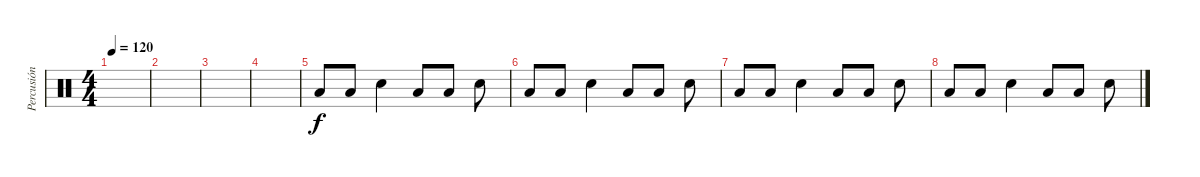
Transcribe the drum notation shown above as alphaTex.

\track ("Percusión" "Percusión") {instrument percussion}
\staff {score}
\articulation defaults
\ts (4 4)
\tempo 120
\clef neutral
\ks c
|
|
|
|
"Low Tom (hit)".8 "Low Tom (hit)".8 "Snare (hit) 2".4 "Low Tom (hit)".8 "Low Tom (hit)".8 "Snare (hit) 2".8 |
"Low Tom (hit)".8 "Low Tom (hit)".8 "Snare (hit) 2".4 "Low Tom (hit)".8 "Low Tom (hit)".8 "Snare (hit) 2".8 |
"Low Tom (hit)".8 "Low Tom (hit)".8 "Snare (hit) 2".4 "Low Tom (hit)".8 "Low Tom (hit)".8 "Snare (hit) 2".8 |
"Low Tom (hit)".8 "Low Tom (hit)".8 "Snare (hit) 2".4 "Low Tom (hit)".8 "Low Tom (hit)".8 "Snare (hit) 2".8
